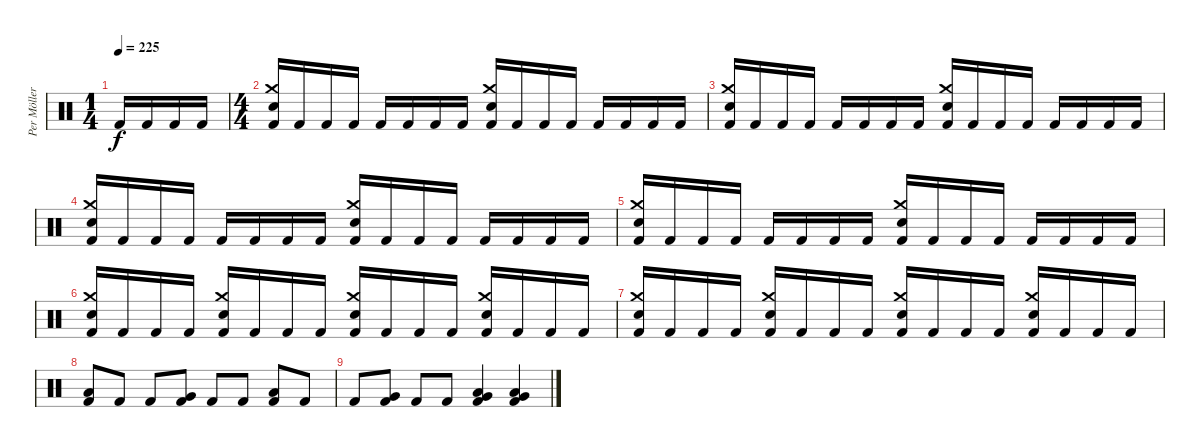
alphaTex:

\track ("Per Möller Jensen" "Per Möller") {instrument percussion}
\staff {score}
\articulation defaults
\ts (1 4)
\tempo 225
\clef neutral
\ks c "Kick (hit) 2".16{dy f} "Kick (hit) 2".16 "Kick (hit) 2".16 "Kick (hit) 2".16
|
\ts (4 4)
("Crash medium (hit)" "Snare (hit) 2" "Kick (hit) 2").16 "Kick (hit) 2".16 "Kick (hit) 2".16 "Kick (hit) 2".16 "Kick (hit) 2".16 "Kick (hit) 2".16 "Kick (hit) 2".16 "Kick (hit) 2".16 ("Crash medium (hit)" "Snare (hit) 2" "Kick (hit) 2").16 "Kick (hit) 2".16 "Kick (hit) 2".16 "Kick (hit) 2".16 "Kick (hit) 2".16 "Kick (hit) 2".16 "Kick (hit) 2".16 "Kick (hit) 2".16 |
("Crash medium (hit)" "Snare (hit) 2" "Kick (hit) 2").16 "Kick (hit) 2".16 "Kick (hit) 2".16 "Kick (hit) 2".16 "Kick (hit) 2".16 "Kick (hit) 2".16 "Kick (hit) 2".16 "Kick (hit) 2".16 ("Crash medium (hit)" "Snare (hit) 2" "Kick (hit) 2").16 "Kick (hit) 2".16 "Kick (hit) 2".16 "Kick (hit) 2".16 "Kick (hit) 2".16 "Kick (hit) 2".16 "Kick (hit) 2".16 "Kick (hit) 2".16 |
("Crash medium (hit)" "Snare (hit) 2" "Kick (hit) 2").16 "Kick (hit) 2".16 "Kick (hit) 2".16 "Kick (hit) 2".16 "Kick (hit) 2".16 "Kick (hit) 2".16 "Kick (hit) 2".16 "Kick (hit) 2".16 ("Crash medium (hit)" "Snare (hit) 2" "Kick (hit) 2").16 "Kick (hit) 2".16 "Kick (hit) 2".16 "Kick (hit) 2".16 "Kick (hit) 2".16 "Kick (hit) 2".16 "Kick (hit) 2".16 "Kick (hit) 2".16 |
("Crash medium (hit)" "Snare (hit) 2" "Kick (hit) 2").16 "Kick (hit) 2".16 "Kick (hit) 2".16 "Kick (hit) 2".16 "Kick (hit) 2".16 "Kick (hit) 2".16 "Kick (hit) 2".16 "Kick (hit) 2".16 ("Crash medium (hit)" "Snare (hit) 2" "Kick (hit) 2").16 "Kick (hit) 2".16 "Kick (hit) 2".16 "Kick (hit) 2".16 "Kick (hit) 2".16 "Kick (hit) 2".16 "Kick (hit) 2".16 "Kick (hit) 2".16 |
("Crash medium (hit)" "Snare (hit) 2" "Kick (hit) 2").16 "Kick (hit) 2".16 "Kick (hit) 2".16 "Kick (hit) 2".16 ("Crash medium (hit)" "Snare (hit) 2" "Kick (hit) 2").16 "Kick (hit) 2".16 "Kick (hit) 2".16 "Kick (hit) 2".16 ("Crash medium (hit)" "Snare (hit) 2" "Kick (hit) 2").16 "Kick (hit) 2".16 "Kick (hit) 2".16 "Kick (hit) 2".16 ("Crash medium (hit)" "Snare (hit) 2" "Kick (hit) 2").16 "Kick (hit) 2".16 "Kick (hit) 2".16 "Kick (hit) 2".16 |
("Crash medium (hit)" "Snare (hit) 2" "Kick (hit) 2").16 "Kick (hit) 2".16 "Kick (hit) 2".16 "Kick (hit) 2".16 ("Crash medium (hit)" "Snare (hit) 2" "Kick (hit) 2").16 "Kick (hit) 2".16 "Kick (hit) 2".16 "Kick (hit) 2".16 ("Crash medium (hit)" "Snare (hit) 2" "Kick (hit) 2").16 "Kick (hit) 2".16 "Kick (hit) 2".16 "Kick (hit) 2".16 ("Crash medium (hit)" "Snare (hit) 2" "Kick (hit) 2").16 "Kick (hit) 2".16 "Kick (hit) 2".16 "Kick (hit) 2".16 |
("Low Tom (hit)" "Kick (hit) 2").8 "Kick (hit) 2".8 "Kick (hit) 2".8 ("Very Low Tom (hit)" "Kick (hit) 2").8 "Kick (hit) 2".8 "Kick (hit) 2".8 ("Low Floor Tom (hit)" "Kick (hit) 2").8 "Kick (hit) 2".8 |
"Kick (hit) 2".8 ("Very Low Tom (hit)" "Kick (hit) 2").8 "Kick (hit) 2".8 "Kick (hit) 2".8 ("Low Floor Tom (hit)" "Very Low Tom (hit)" "Kick (hit) 2").4 ("Low Floor Tom (hit)" "Very Low Tom (hit)" "Kick (hit) 2").4
